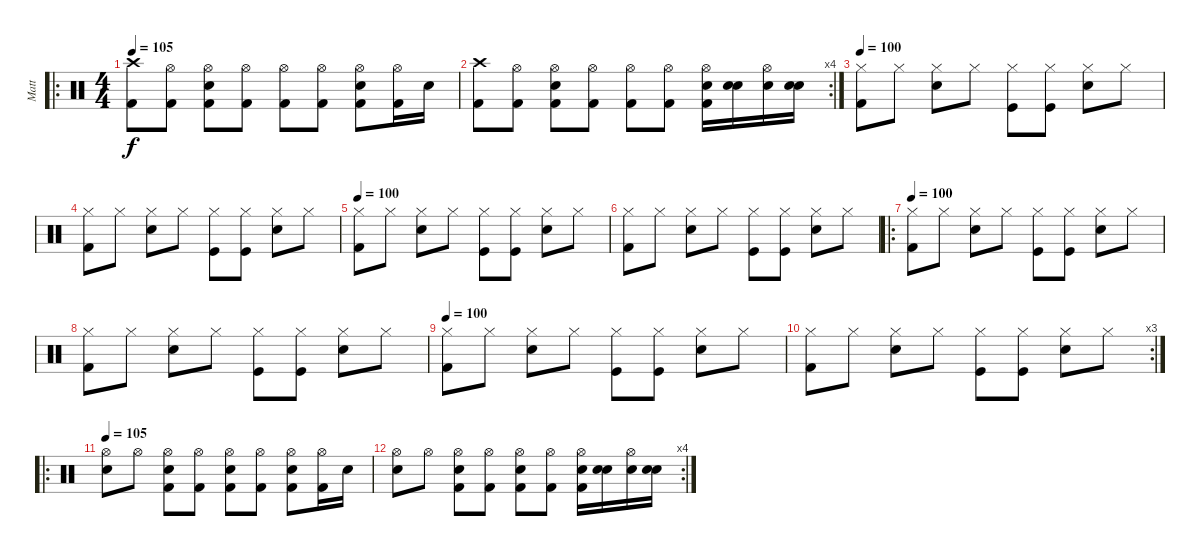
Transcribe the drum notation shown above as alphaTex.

\track ("Matt" "Matt") {instrument percussion}
\staff {score}
\articulation defaults
\ro
\ts (4 4)
\tempo 105
\clef neutral
\ks c
("Crash high (hit)" "Kick (hit) 2").8{dy f} ("Hi-Hat (open)" "Kick (hit) 2").8 ("Hi-Hat (open)" "Kick (hit) 2" "Snare (hit) 2").8 ("Hi-Hat (open)" "Kick (hit) 2").8 ("Hi-Hat (open)" "Kick (hit) 2").8 ("Hi-Hat (open)" "Kick (hit) 2").8 ("Hi-Hat (open)" "Kick (hit) 2" "Snare (hit) 2").8 ("Hi-Hat (open)" "Kick (hit) 2").16 "Snare (hit) 2".16 |
\rc 4
("Crash high (hit)" "Kick (hit) 2").8 ("Hi-Hat (open)" "Kick (hit) 2").8 ("Hi-Hat (open)" "Kick (hit) 2" "Snare (hit) 2").8 ("Hi-Hat (open)" "Kick (hit) 2").8 ("Hi-Hat (open)" "Kick (hit) 2").8 ("Hi-Hat (open)" "Kick (hit) 2").8 ("Hi-Hat (open)" "Kick (hit) 2" "Snare (hit) 2").16 ("Snare (hit)" "Snare (hit) 2").16 ("Hi-Hat (open)" "Snare (hit) 2").16 ("Snare (hit)" "Snare (hit) 2").16 |
\tempo 100
("Hi-Hat (closed)" "Kick (hit) 2").8 "Hi-Hat (closed)".8 ("Hi-Hat (closed)" "Electric Snare (hit)").8 "Hi-Hat (closed)".8 ("Hi-Hat (closed)" "Kick (hit)").8 ("Hi-Hat (closed)" "Kick (hit)").8 ("Hi-Hat (closed)" "Electric Snare (hit)").8 "Hi-Hat (closed)".8 |
("Hi-Hat (closed)" "Kick (hit) 2").8 "Hi-Hat (closed)".8 ("Hi-Hat (closed)" "Electric Snare (hit)").8 "Hi-Hat (closed)".8 ("Hi-Hat (closed)" "Kick (hit)").8 ("Hi-Hat (closed)" "Kick (hit)").8 ("Hi-Hat (closed)" "Electric Snare (hit)").8 "Hi-Hat (closed)".8 |
\tempo 100
("Hi-Hat (closed)" "Kick (hit) 2").8 "Hi-Hat (closed)".8 ("Hi-Hat (closed)" "Electric Snare (hit)").8 "Hi-Hat (closed)".8 ("Hi-Hat (closed)" "Kick (hit)").8 ("Hi-Hat (closed)" "Kick (hit)").8 ("Hi-Hat (closed)" "Electric Snare (hit)").8 "Hi-Hat (closed)".8 |
("Hi-Hat (closed)" "Kick (hit) 2").8 "Hi-Hat (closed)".8 ("Hi-Hat (closed)" "Electric Snare (hit)").8 "Hi-Hat (closed)".8 ("Hi-Hat (closed)" "Kick (hit)").8 ("Hi-Hat (closed)" "Kick (hit)").8 ("Hi-Hat (closed)" "Electric Snare (hit)").8 "Hi-Hat (closed)".8 |
\ro
\tempo 100
("Hi-Hat (closed)" "Kick (hit) 2").8 "Hi-Hat (closed)".8 ("Hi-Hat (closed)" "Electric Snare (hit)").8 "Hi-Hat (closed)".8 ("Hi-Hat (closed)" "Kick (hit)").8 ("Hi-Hat (closed)" "Kick (hit)").8 ("Hi-Hat (closed)" "Electric Snare (hit)").8 "Hi-Hat (closed)".8 |
("Hi-Hat (closed)" "Kick (hit) 2").8 "Hi-Hat (closed)".8 ("Hi-Hat (closed)" "Electric Snare (hit)").8 "Hi-Hat (closed)".8 ("Hi-Hat (closed)" "Kick (hit)").8 ("Hi-Hat (closed)" "Kick (hit)").8 ("Hi-Hat (closed)" "Electric Snare (hit)").8 "Hi-Hat (closed)".8 |
\tempo 100
("Hi-Hat (closed)" "Kick (hit) 2").8 "Hi-Hat (closed)".8 ("Hi-Hat (closed)" "Electric Snare (hit)").8 "Hi-Hat (closed)".8 ("Hi-Hat (closed)" "Kick (hit)").8 ("Hi-Hat (closed)" "Kick (hit)").8 ("Hi-Hat (closed)" "Electric Snare (hit)").8 "Hi-Hat (closed)".8 |
\rc 3
("Hi-Hat (closed)" "Kick (hit) 2").8 "Hi-Hat (closed)".8 ("Hi-Hat (closed)" "Electric Snare (hit)").8 "Hi-Hat (closed)".8 ("Hi-Hat (closed)" "Kick (hit)").8 ("Hi-Hat (closed)" "Kick (hit)").8 ("Hi-Hat (closed)" "Electric Snare (hit)").8 "Hi-Hat (closed)".8 |
\ro
\tempo 105
("Hi-Hat (open)" "Snare (hit) 2").8 "Hi-Hat (open)".8 ("Hi-Hat (open)" "Kick (hit) 2" "Snare (hit) 2").8 ("Hi-Hat (open)" "Kick (hit) 2").8 ("Hi-Hat (open)" "Kick (hit) 2" "Snare (hit) 2").8 ("Hi-Hat (open)" "Kick (hit) 2").8 ("Hi-Hat (open)" "Kick (hit) 2" "Snare (hit) 2").8 ("Hi-Hat (open)" "Kick (hit) 2").16 "Snare (hit) 2".16 |
\rc 4
("Hi-Hat (open)" "Snare (hit) 2").8 "Hi-Hat (open)".8 ("Hi-Hat (open)" "Kick (hit) 2" "Snare (hit) 2").8 ("Hi-Hat (open)" "Kick (hit) 2").8 ("Hi-Hat (open)" "Kick (hit) 2" "Snare (hit) 2").8 ("Hi-Hat (open)" "Kick (hit) 2").8 ("Hi-Hat (open)" "Kick (hit) 2" "Snare (hit) 2").16 ("Snare (hit)" "Snare (hit) 2").16 ("Hi-Hat (open)" "Snare (hit) 2").16 ("Snare (hit)" "Snare (hit) 2").16
